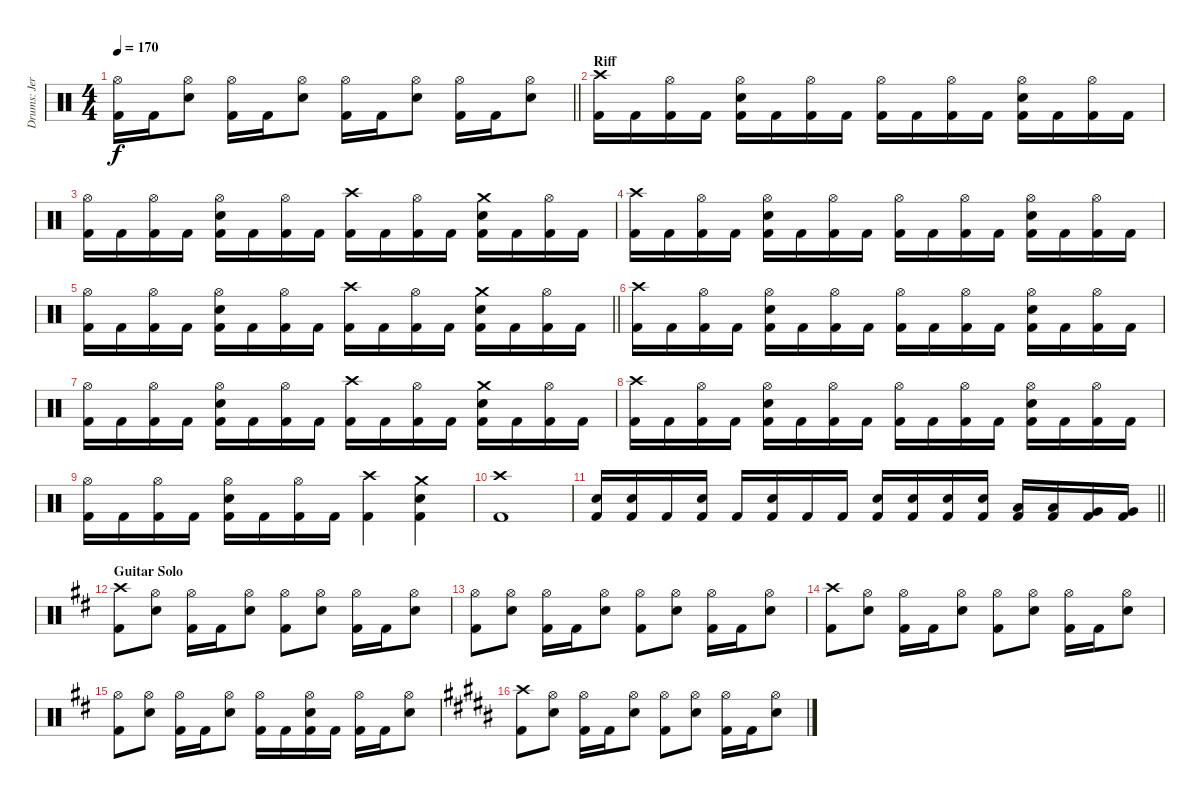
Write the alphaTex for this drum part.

\track ("Drums: Jere Luokkamäki" "Drums: Jer") {instrument percussion}
\staff {score}
\articulation defaults
\ts (4 4)
\tempo 170
\clef neutral
\barLineRight lightlight
\ks aminor
("Hi-Hat (open)" "Kick (hit) 2").16{dy f} "Kick (hit) 2".16 ("Hi-Hat (open)" "Electric Snare (hit)").8 ("Hi-Hat (open)" "Kick (hit) 2").16 "Kick (hit) 2".16 ("Hi-Hat (open)" "Electric Snare (hit)").8 ("Hi-Hat (open)" "Kick (hit) 2").16 "Kick (hit) 2".16 ("Hi-Hat (open)" "Electric Snare (hit)").8 ("Hi-Hat (open)" "Kick (hit) 2").16 "Kick (hit) 2".16 ("Hi-Hat (open)" "Electric Snare (hit)").8 |
\section ("" "Riff")
("Crash high (hit)" "Kick (hit) 2").16 "Kick (hit) 2".16 ("Hi-Hat (open)" "Kick (hit) 2").16 "Kick (hit) 2".16 ("Hi-Hat (open)" "Electric Snare (hit)" "Kick (hit) 2").16 "Kick (hit) 2".16 ("Hi-Hat (open)" "Kick (hit) 2").16 "Kick (hit) 2".16 ("Hi-Hat (open)" "Kick (hit) 2").16 "Kick (hit) 2".16 ("Hi-Hat (open)" "Kick (hit) 2").16 "Kick (hit) 2".16 ("Hi-Hat (open)" "Electric Snare (hit)" "Kick (hit) 2").16 "Kick (hit) 2".16 ("Hi-Hat (open)" "Kick (hit) 2").16 "Kick (hit) 2".16 |
("Hi-Hat (open)" "Kick (hit) 2").16 "Kick (hit) 2".16 ("Hi-Hat (open)" "Kick (hit) 2").16 "Kick (hit) 2".16 ("Hi-Hat (open)" "Electric Snare (hit)" "Kick (hit) 2").16 "Kick (hit) 2".16 ("Hi-Hat (open)" "Kick (hit) 2").16 "Kick (hit) 2".16 ("Crash high (hit)" "Kick (hit) 2").16 "Kick (hit) 2".16 ("Hi-Hat (open)" "Kick (hit) 2").16 "Kick (hit) 2".16 ("Crash medium (hit)" "Electric Snare (hit)" "Kick (hit) 2").16 "Kick (hit) 2".16 ("Hi-Hat (open)" "Kick (hit) 2").16 "Kick (hit) 2".16 |
("Crash high (hit)" "Kick (hit) 2").16 "Kick (hit) 2".16 ("Hi-Hat (open)" "Kick (hit) 2").16 "Kick (hit) 2".16 ("Hi-Hat (open)" "Electric Snare (hit)" "Kick (hit) 2").16 "Kick (hit) 2".16 ("Hi-Hat (open)" "Kick (hit) 2").16 "Kick (hit) 2".16 ("Hi-Hat (open)" "Kick (hit) 2").16 "Kick (hit) 2".16 ("Hi-Hat (open)" "Kick (hit) 2").16 "Kick (hit) 2".16 ("Hi-Hat (open)" "Electric Snare (hit)" "Kick (hit) 2").16 "Kick (hit) 2".16 ("Hi-Hat (open)" "Kick (hit) 2").16 "Kick (hit) 2".16 |
\barLineRight lightlight
("Hi-Hat (open)" "Kick (hit) 2").16 "Kick (hit) 2".16 ("Hi-Hat (open)" "Kick (hit) 2").16 "Kick (hit) 2".16 ("Hi-Hat (open)" "Electric Snare (hit)" "Kick (hit) 2").16 "Kick (hit) 2".16 ("Hi-Hat (open)" "Kick (hit) 2").16 "Kick (hit) 2".16 ("Crash high (hit)" "Kick (hit) 2").16 "Kick (hit) 2".16 ("Hi-Hat (open)" "Kick (hit) 2").16 "Kick (hit) 2".16 ("Crash medium (hit)" "Electric Snare (hit)" "Kick (hit) 2").16 "Kick (hit) 2".16 ("Hi-Hat (open)" "Kick (hit) 2").16 "Kick (hit) 2".16 |
("Crash high (hit)" "Kick (hit) 2").16 "Kick (hit) 2".16 ("Hi-Hat (open)" "Kick (hit) 2").16 "Kick (hit) 2".16 ("Hi-Hat (open)" "Electric Snare (hit)" "Kick (hit) 2").16 "Kick (hit) 2".16 ("Hi-Hat (open)" "Kick (hit) 2").16 "Kick (hit) 2".16 ("Hi-Hat (open)" "Kick (hit) 2").16 "Kick (hit) 2".16 ("Hi-Hat (open)" "Kick (hit) 2").16 "Kick (hit) 2".16 ("Hi-Hat (open)" "Electric Snare (hit)" "Kick (hit) 2").16 "Kick (hit) 2".16 ("Hi-Hat (open)" "Kick (hit) 2").16 "Kick (hit) 2".16 |
("Hi-Hat (open)" "Kick (hit) 2").16 "Kick (hit) 2".16 ("Hi-Hat (open)" "Kick (hit) 2").16 "Kick (hit) 2".16 ("Hi-Hat (open)" "Electric Snare (hit)" "Kick (hit) 2").16 "Kick (hit) 2".16 ("Hi-Hat (open)" "Kick (hit) 2").16 "Kick (hit) 2".16 ("Crash high (hit)" "Kick (hit) 2").16 "Kick (hit) 2".16 ("Hi-Hat (open)" "Kick (hit) 2").16 "Kick (hit) 2".16 ("Crash medium (hit)" "Electric Snare (hit)" "Kick (hit) 2").16 "Kick (hit) 2".16 ("Hi-Hat (open)" "Kick (hit) 2").16 "Kick (hit) 2".16 |
("Crash high (hit)" "Kick (hit) 2").16 "Kick (hit) 2".16 ("Hi-Hat (open)" "Kick (hit) 2").16 "Kick (hit) 2".16 ("Hi-Hat (open)" "Electric Snare (hit)" "Kick (hit) 2").16 "Kick (hit) 2".16 ("Hi-Hat (open)" "Kick (hit) 2").16 "Kick (hit) 2".16 ("Hi-Hat (open)" "Kick (hit) 2").16 "Kick (hit) 2".16 ("Hi-Hat (open)" "Kick (hit) 2").16 "Kick (hit) 2".16 ("Hi-Hat (open)" "Electric Snare (hit)" "Kick (hit) 2").16 "Kick (hit) 2".16 ("Hi-Hat (open)" "Kick (hit) 2").16 "Kick (hit) 2".16 |
("Hi-Hat (open)" "Kick (hit) 2").16 "Kick (hit) 2".16 ("Hi-Hat (open)" "Kick (hit) 2").16 "Kick (hit) 2".16 ("Hi-Hat (open)" "Electric Snare (hit)" "Kick (hit) 2").16 "Kick (hit) 2".16 ("Hi-Hat (open)" "Kick (hit) 2").16 "Kick (hit) 2".16 ("Crash high (hit)" "Kick (hit) 2").4 ("Crash medium (hit)" "Electric Snare (hit)" "Kick (hit) 2").4 |
("Crash high (hit)" "Kick (hit) 2").1 |
\barLineRight lightlight
("Electric Snare (hit)" "Kick (hit) 2").16 ("Electric Snare (hit)" "Kick (hit) 2").16 "Kick (hit) 2".16 ("Electric Snare (hit)" "Kick (hit) 2").16 "Kick (hit) 2".16 ("Electric Snare (hit)" "Kick (hit) 2").16 "Kick (hit) 2".16 "Kick (hit) 2".16 ("Electric Snare (hit)" "Kick (hit) 2").16 ("Electric Snare (hit)" "Kick (hit) 2").16 ("Electric Snare (hit)" "Kick (hit) 2").16 ("Electric Snare (hit)" "Kick (hit) 2").16 ("Low Tom (hit)" "Kick (hit) 2").16 ("Low Tom (hit)" "Kick (hit) 2").16 ("Very Low Tom (hit)" "Kick (hit) 2").16 ("Very Low Tom (hit)" "Kick (hit) 2").16 |
\section ("" "Guitar Solo")
\ks bminor
("Crash high (hit)" "Kick (hit) 2").8 ("Hi-Hat (open)" "Electric Snare (hit)").8 ("Hi-Hat (open)" "Kick (hit) 2").16 "Kick (hit) 2".16 ("Hi-Hat (open)" "Electric Snare (hit)").8 ("Hi-Hat (open)" "Kick (hit) 2").8 ("Hi-Hat (open)" "Electric Snare (hit)").8 ("Hi-Hat (open)" "Kick (hit) 2").16 "Kick (hit) 2".16 ("Hi-Hat (open)" "Electric Snare (hit)").8 |
("Hi-Hat (open)" "Kick (hit) 2").8 ("Hi-Hat (open)" "Electric Snare (hit)").8 ("Hi-Hat (open)" "Kick (hit) 2").16 "Kick (hit) 2".16 ("Hi-Hat (open)" "Electric Snare (hit)").8 ("Hi-Hat (open)" "Kick (hit) 2").8 ("Hi-Hat (open)" "Electric Snare (hit)").8 ("Hi-Hat (open)" "Kick (hit) 2").16 "Kick (hit) 2".16 ("Hi-Hat (open)" "Electric Snare (hit)").8 |
("Crash high (hit)" "Kick (hit) 2").8 ("Hi-Hat (open)" "Electric Snare (hit)").8 ("Hi-Hat (open)" "Kick (hit) 2").16 "Kick (hit) 2".16 ("Hi-Hat (open)" "Electric Snare (hit)").8 ("Hi-Hat (open)" "Kick (hit) 2").8 ("Hi-Hat (open)" "Electric Snare (hit)").8 ("Hi-Hat (open)" "Kick (hit) 2").16 "Kick (hit) 2".16 ("Hi-Hat (open)" "Electric Snare (hit)").8 |
("Hi-Hat (open)" "Kick (hit) 2").8 ("Hi-Hat (open)" "Electric Snare (hit)").8 ("Hi-Hat (open)" "Kick (hit) 2").16 "Kick (hit) 2".16 ("Hi-Hat (open)" "Electric Snare (hit)").8 ("Hi-Hat (open)" "Kick (hit) 2").16 "Kick (hit) 2".16 ("Hi-Hat (open)" "Electric Snare (hit)" "Kick (hit) 2").16 "Kick (hit) 2".16 ("Hi-Hat (open)" "Kick (hit) 2").16 "Kick (hit) 2".16 ("Hi-Hat (open)" "Electric Snare (hit)").8 |
\ks b
("Crash high (hit)" "Kick (hit) 2").8 ("Hi-Hat (open)" "Electric Snare (hit)").8 ("Hi-Hat (open)" "Kick (hit) 2").16 "Kick (hit) 2".16 ("Hi-Hat (open)" "Electric Snare (hit)").8 ("Hi-Hat (open)" "Kick (hit) 2").8 ("Hi-Hat (open)" "Electric Snare (hit)").8 ("Hi-Hat (open)" "Kick (hit) 2").16 "Kick (hit) 2".16 ("Hi-Hat (open)" "Electric Snare (hit)").8
